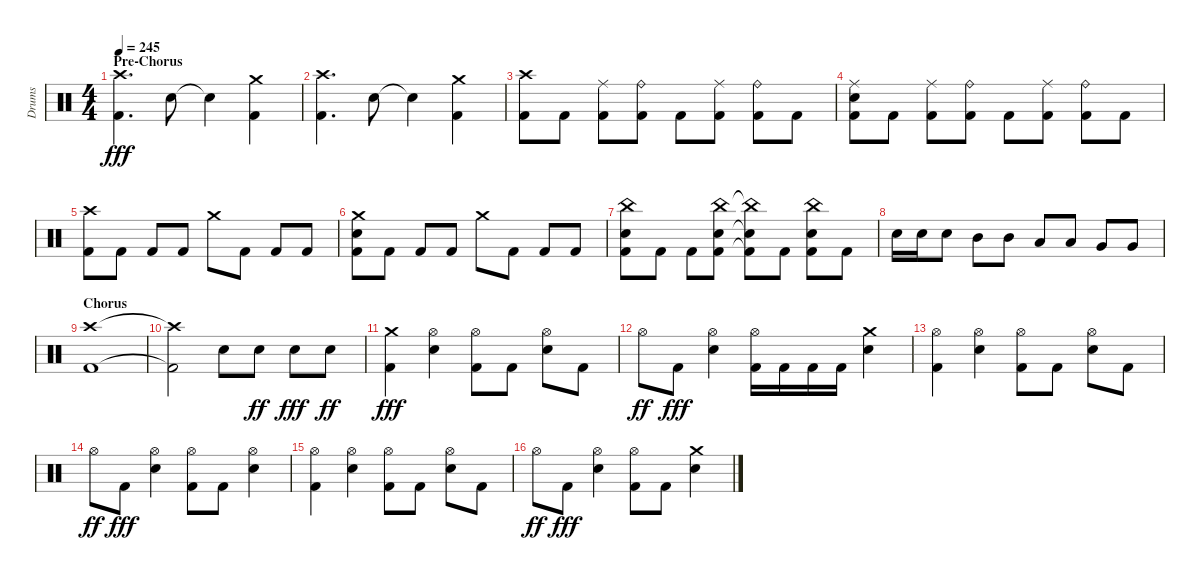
\track ("Drums" "Drums") {instrument percussion}
\staff {score}
\articulation defaults
\ts (4 4)
\section ("" "Pre-Chorus")
\tempo 245
\clef neutral
\ks aminor
("Kick (hit) 2" "Crash high (hit)").4{d dy fff} "Snare (hit) 2".8 "Snare (hit) 2"{t}.4 ("Kick (hit) 2" "Crash medium (hit)").4 |
("Kick (hit) 2" "Crash high (hit)").4{d} "Snare (hit) 2".8 "Snare (hit) 2"{t}.4 ("Kick (hit) 2" "Crash medium (hit)").4 |
("Kick (hit) 2" "Crash high (hit)").8 "Kick (hit) 2".8 ("Kick (hit) 2" "Ride (middle)").8 ("Kick (hit) 2" "Ride (bell)").8 "Kick (hit) 2".8 ("Kick (hit) 2" "Ride (middle)").8 ("Kick (hit) 2" "Ride (bell)").8 "Kick (hit) 2".8 |
("Kick (hit) 2" "Snare (hit) 2" "Ride (middle)").8 "Kick (hit) 2".8 ("Kick (hit) 2" "Ride (middle)").8 ("Kick (hit) 2" "Ride (bell)").8 "Kick (hit) 2".8 ("Kick (hit) 2" "Ride (middle)").8 ("Kick (hit) 2" "Ride (bell)").8 "Kick (hit) 2".8 |
("Kick (hit) 2" "Crash high (hit)").8 "Kick (hit) 2".8 "Kick (hit) 2".8 "Kick (hit) 2".8 "Crash medium (hit)".8 "Kick (hit) 2".8 "Kick (hit) 2".8 "Kick (hit) 2".8 |
("Kick (hit) 2" "Snare (hit) 2" "Crash medium (hit)").8 "Kick (hit) 2".8 "Kick (hit) 2".8 "Kick (hit) 2".8 "Crash medium (hit)".8 "Kick (hit) 2".8 "Kick (hit) 2".8 "Kick (hit) 2".8 |
("Kick (hit) 2" "Snare (hit) 2" "China (hit)").8 "Kick (hit) 2".8 "Kick (hit) 2".8 ("Kick (hit) 2" "Snare (hit) 2" "China (hit)").8 ("Kick (hit) 2"{t} "Snare (hit) 2"{t} "China (hit)"{t}).8 "Kick (hit) 2".8 ("Kick (hit) 2" "Snare (hit) 2" "China (hit)").8 "Kick (hit) 2".8 |
"Snare (hit) 2".16 "Snare (hit) 2".16 "Snare (hit) 2".8 "Mid Tom (hit)".8 "Mid Tom (hit)".8 "Low Tom (hit)".8 "Low Tom (hit)".8 "Very Low Tom (hit)".8 "Very Low Tom (hit)".8 |
\section ("" "Chorus")
("Kick (hit) 2" "Crash high (hit)").1 |
("Kick (hit) 2"{t} "Crash high (hit)"{t}).2 "Snare (hit) 2".8 "Snare (hit) 2".8{dy ff} "Snare (hit) 2".8{dy fff} "Snare (hit) 2".8{dy ff} |
("Kick (hit) 2" "Crash medium (hit)").4{dy fff} ("Snare (hit) 2" "Hi-Hat (open)").4 ("Kick (hit) 2" "Hi-Hat (open)").8 "Kick (hit) 2".8 ("Snare (hit) 2" "Hi-Hat (open)").8 "Kick (hit) 2".8 |
"Hi-Hat (open)".8{dy ff} "Kick (hit) 2".8{dy fff} ("Snare (hit) 2" "Hi-Hat (open)").4 ("Kick (hit) 2" "Hi-Hat (open)").16 "Kick (hit) 2".16 "Kick (hit) 2".16 "Kick (hit) 2".16 ("Snare (hit) 2" "Crash medium (hit)").4 |
("Kick (hit) 2" "Hi-Hat (open)").4 ("Snare (hit) 2" "Hi-Hat (open)").4 ("Kick (hit) 2" "Hi-Hat (open)").8 "Kick (hit) 2".8 ("Snare (hit) 2" "Hi-Hat (open)").8 "Kick (hit) 2".8 |
"Hi-Hat (open)".8{dy ff} "Kick (hit) 2".8{dy fff} ("Snare (hit) 2" "Hi-Hat (open)").4 ("Kick (hit) 2" "Hi-Hat (open)").8 "Kick (hit) 2".8 ("Snare (hit) 2" "Hi-Hat (open)").4 |
("Kick (hit) 2" "Hi-Hat (open)").4 ("Snare (hit) 2" "Hi-Hat (open)").4 ("Kick (hit) 2" "Hi-Hat (open)").8 "Kick (hit) 2".8 ("Snare (hit) 2" "Hi-Hat (open)").8 "Kick (hit) 2".8 |
"Hi-Hat (open)".8{dy ff} "Kick (hit) 2".8{dy fff} ("Snare (hit) 2" "Hi-Hat (open)").4 ("Kick (hit) 2" "Hi-Hat (open)").8 "Kick (hit) 2".8 ("Snare (hit) 2" "Crash medium (hit)").4
